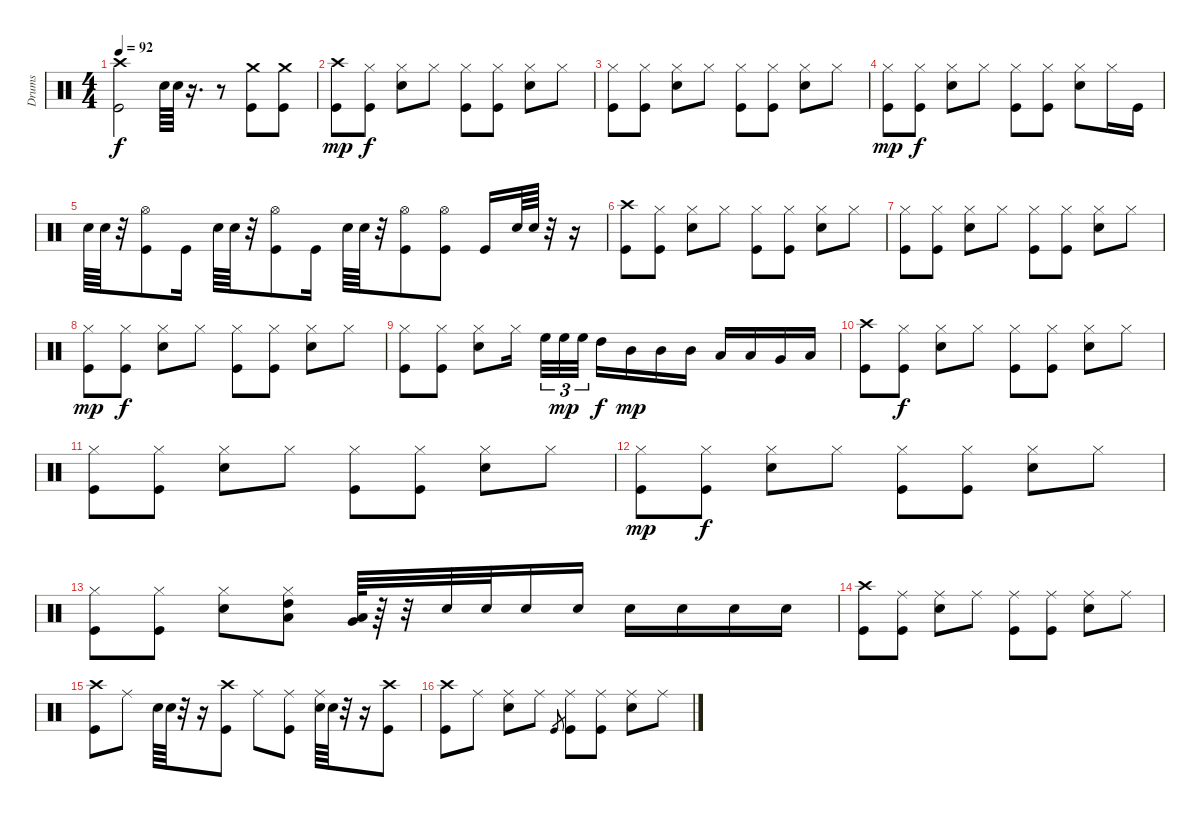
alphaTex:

\track ("Drums" "Drums") {instrument percussion}
\staff {score}
\articulation defaults
\ts (4 4)
\tempo 92
\clef neutral
\ks c
("Crash high (hit)" "Kick (hit)").2{dy f} "Snare (hit) 2".64 "Snare (hit) 2".64 r.16{d} r.8 ("Crash medium (hit)" "Kick (hit)").8 ("Crash medium (hit)" "Kick (hit)").8 |
("Crash high (hit)" "Kick (hit)").8{dy mp} ("Hi-Hat (closed)" "Kick (hit)").8{dy f} ("Hi-Hat (closed)" "Snare (hit) 2").8 "Hi-Hat (closed)".8 ("Hi-Hat (closed)" "Kick (hit)").8 ("Hi-Hat (closed)" "Kick (hit)").8 ("Hi-Hat (closed)" "Snare (hit) 2").8 "Hi-Hat (closed)".8 |
("Hi-Hat (closed)" "Kick (hit)").8 ("Hi-Hat (closed)" "Kick (hit)").8 ("Hi-Hat (closed)" "Snare (hit) 2").8 "Hi-Hat (closed)".8 ("Hi-Hat (closed)" "Kick (hit)").8 ("Hi-Hat (closed)" "Kick (hit)").8 ("Hi-Hat (closed)" "Snare (hit) 2").8 "Hi-Hat (closed)".8 |
("Hi-Hat (closed)" "Kick (hit)").8{dy mp} ("Hi-Hat (closed)" "Kick (hit)").8{dy f} ("Hi-Hat (closed)" "Snare (hit) 2").8 "Hi-Hat (closed)".8 ("Hi-Hat (closed)" "Kick (hit)").8 ("Hi-Hat (closed)" "Kick (hit)").8 ("Hi-Hat (closed)" "Snare (hit) 2").8 "Hi-Hat (closed)".16 "Kick (hit)".16 |
"Snare (hit) 2".64 "Snare (hit) 2".64 r.32 ("Hi-Hat (open)" "Kick (hit)").8 "Kick (hit)".16 "Snare (hit) 2".64 "Snare (hit) 2".64 r.32 ("Hi-Hat (open)" "Kick (hit)").8 "Kick (hit)".16 "Snare (hit) 2".64 "Snare (hit) 2".64 r.32 ("Hi-Hat (open)" "Kick (hit)").8 ("Hi-Hat (open)" "Kick (hit)").8 "Kick (hit)".16 "Snare (hit) 2".64 "Snare (hit) 2".64 r.32 r.16 |
("Crash high (hit)" "Kick (hit)").8 ("Hi-Hat (closed)" "Kick (hit)").8 ("Hi-Hat (closed)" "Snare (hit) 2").8 "Hi-Hat (closed)".8 ("Hi-Hat (closed)" "Kick (hit)").8 ("Hi-Hat (closed)" "Kick (hit)").8 ("Hi-Hat (closed)" "Snare (hit) 2").8 "Hi-Hat (closed)".8 |
("Hi-Hat (closed)" "Kick (hit)").8 ("Hi-Hat (closed)" "Kick (hit)").8 ("Hi-Hat (closed)" "Snare (hit) 2").8 "Hi-Hat (closed)".8 ("Hi-Hat (closed)" "Kick (hit)").8 ("Hi-Hat (closed)" "Kick (hit)").8 ("Hi-Hat (closed)" "Snare (hit) 2").8 "Hi-Hat (closed)".8 |
("Hi-Hat (closed)" "Kick (hit)").8{dy mp} ("Hi-Hat (closed)" "Kick (hit)").8{dy f} ("Hi-Hat (closed)" "Snare (hit) 2").8 "Hi-Hat (closed)".8 ("Hi-Hat (closed)" "Kick (hit)").8 ("Hi-Hat (closed)" "Kick (hit)").8 ("Hi-Hat (closed)" "Snare (hit) 2").8 "Hi-Hat (closed)".8 |
("Hi-Hat (closed)" "Kick (hit)").8 ("Hi-Hat (closed)" "Kick (hit)").8 ("Hi-Hat (closed)" "Snare (hit) 2").8 "Hi-Hat (closed)".16 "High Floor Tom (hit)".32{tu (3 2)} "High Floor Tom (hit)".32{tu (3 2) dy mp} "High Floor Tom (hit)".32{tu (3 2)} "High Tom (hit)".16{dy f} "Mid Tom (hit)".16{dy mp} "Mid Tom (hit)".16 "Mid Tom (hit)".16 "Low Tom (hit)".16 "Low Tom (hit)".16 "Very Low Tom (hit)".16 "Low Floor Tom (hit)".16 |
("Crash high (hit)" "Kick (hit)").8 ("Hi-Hat (closed)" "Kick (hit)").8{dy f} ("Hi-Hat (closed)" "Snare (hit) 2").8 "Hi-Hat (closed)".8 ("Hi-Hat (closed)" "Kick (hit)").8 ("Hi-Hat (closed)" "Kick (hit)").8 ("Hi-Hat (closed)" "Snare (hit) 2").8 "Hi-Hat (closed)".8 |
("Hi-Hat (closed)" "Kick (hit)").8 ("Hi-Hat (closed)" "Kick (hit)").8 ("Hi-Hat (closed)" "Snare (hit) 2").8 "Hi-Hat (closed)".8 ("Hi-Hat (closed)" "Kick (hit)").8 ("Hi-Hat (closed)" "Kick (hit)").8 ("Hi-Hat (closed)" "Snare (hit) 2").8 "Hi-Hat (closed)".8 |
("Hi-Hat (closed)" "Kick (hit)").8{dy mp} ("Hi-Hat (closed)" "Kick (hit)").8{dy f} ("Hi-Hat (closed)" "Snare (hit) 2").8 "Hi-Hat (closed)".8 ("Hi-Hat (closed)" "Kick (hit)").8 ("Hi-Hat (closed)" "Kick (hit)").8 ("Hi-Hat (closed)" "Snare (hit) 2").8 "Hi-Hat (closed)".8 |
("Hi-Hat (closed)" "Kick (hit)").8 ("Hi-Hat (closed)" "Kick (hit)").8 ("Hi-Hat (closed)" "Snare (hit) 2").8 ("Hi-Hat (closed)" "High Tom (hit)" "Low Tom (hit)").8 ("Very Low Tom (hit)" "Low Tom (hit)").64 r.64 r.32 "Snare (hit) 2".32 "Snare (hit) 2".32 "Snare (hit) 2".16 "Snare (hit) 2".16 "Snare (hit) 2".16 "Snare (hit) 2".16 "Snare (hit) 2".16 "Snare (hit) 2".16 |
("Crash high (hit)" "Kick (hit)").8 ("Ride (middle)" "Kick (hit)").8 ("Ride (middle)" "Snare (hit) 2").8 "Ride (middle)".8 ("Ride (middle)" "Kick (hit)").8 ("Ride (middle)" "Kick (hit)").8 ("Ride (middle)" "Snare (hit) 2").8 "Ride (middle)".8 |
("Crash high (hit)" "Kick (hit)").8 "Ride (middle)".8 "Snare (hit) 2".64 "Snare (hit) 2".64 r.32 r.16 ("Crash high (hit)" "Kick (hit)").8 "Ride (middle)".8 ("Ride (middle)" "Kick (hit)").8 ("Ride (middle)" "Snare (hit) 2").64 "Snare (hit) 2".64 r.32 r.16 ("Crash high (hit)" "Kick (hit)").8 |
("Crash high (hit)" "Kick (hit)").8 "Ride (middle)".8 ("Ride (middle)" "Snare (hit) 2").8 "Ride (middle)".8 "Kick (hit)".8{gr} ("Ride (middle)" "Kick (hit)").8 ("Ride (middle)" "Kick (hit)").8 ("Ride (middle)" "Snare (hit) 2").8 "Ride (middle)".8
